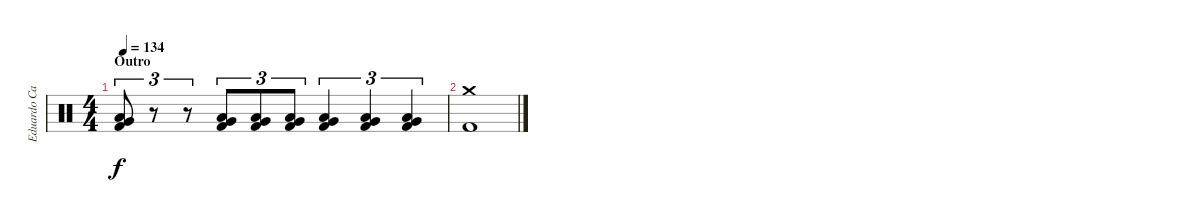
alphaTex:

\track ("Eduardo Carrillo" "Eduardo Ca") {instrument percussion}
\staff {score}
\articulation defaults
\ts (4 4)
\section ("" "Outro")
\tempo 134
\clef neutral
\ks c
("Kick (hit) 2" "Low Tom (hit)" "Very Low Tom (hit)").8{tu (3 2) dy f} r.8{tu (3 2)} r.8{tu (3 2)} ("Kick (hit) 2" "Low Tom (hit)" "Very Low Tom (hit)").8{tu (3 2)} ("Kick (hit) 2" "Low Tom (hit)" "Very Low Tom (hit)").8{tu (3 2)} ("Kick (hit) 2" "Low Tom (hit)" "Very Low Tom (hit)").8{tu (3 2)} ("Kick (hit) 2" "Low Tom (hit)" "Very Low Tom (hit)").4{tu (3 2)} ("Kick (hit) 2" "Low Tom (hit)" "Very Low Tom (hit)").4{tu (3 2)} ("Kick (hit) 2" "Low Tom (hit)" "Very Low Tom (hit)").4{tu (3 2)} |
("Kick (hit) 2" "Crash medium (hit)").1
